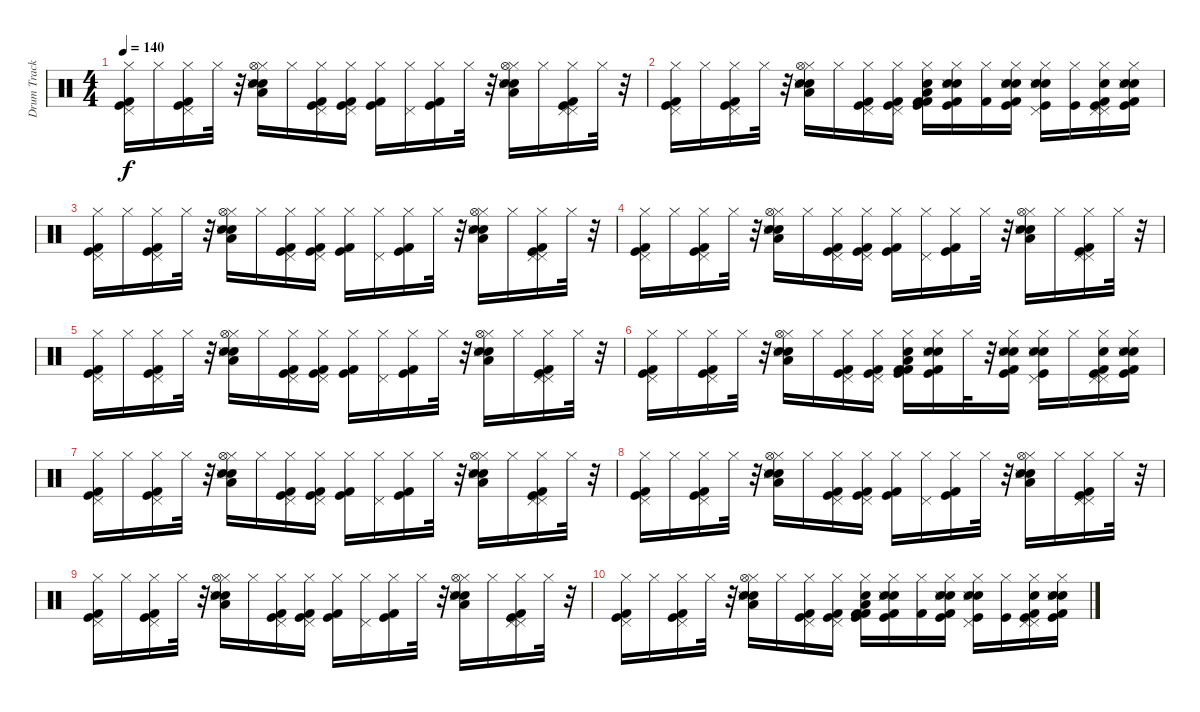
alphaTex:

\track ("Drum Track" "Drum Track") {instrument percussion}
\staff {score}
\articulation defaults
\ts (4 4)
\tempo 140
\clef neutral
\ks c
("Hi-Hat (closed)" "Pedal Hi-Hat (hit)" "Kick (hit)" "Kick (hit) 2").16{dy f} "Hi-Hat (closed)".16 ("Kick (hit) 2" "Kick (hit)" "Pedal Hi-Hat (hit)" "Hi-Hat (closed)").16 "Hi-Hat (closed)".32 r.32 ("Hi-Hat (closed)" "Hi-Hat (open)" "Low Floor Tom (hit)" "Electric Snare (hit)" "Hand Clap (hit)" "Snare (side stick) 3").16 "Hi-Hat (closed)".16 ("Kick (hit) 2" "Kick (hit)" "Pedal Hi-Hat (hit)" "Hi-Hat (closed)").16 ("Kick (hit) 2" "Kick (hit)" "Pedal Hi-Hat (hit)" "Hi-Hat (closed)").16 ("Kick (hit) 2" "Kick (hit)" "Hi-Hat (closed)").16 ("Pedal Hi-Hat (hit)" "Hi-Hat (closed)").16 ("Kick (hit) 2" "Kick (hit)" "Hi-Hat (closed)").16 "Hi-Hat (closed)".32 r.32 ("Hi-Hat (closed)" "Hi-Hat (open)" "Low Floor Tom (hit)" "Electric Snare (hit)" "Hand Clap (hit)" "Snare (side stick) 3").16 "Hi-Hat (closed)".16 ("Kick (hit) 2" "Kick (hit)" "Pedal Hi-Hat (hit)" "Pedal Hi-Hat (hit)" "Hi-Hat (closed)").16 "Hi-Hat (closed)".32 r.32 |
("Hi-Hat (closed)" "Pedal Hi-Hat (hit)" "Kick (hit)" "Kick (hit) 2").16 "Hi-Hat (closed)".16 ("Kick (hit) 2" "Kick (hit)" "Pedal Hi-Hat (hit)" "Hi-Hat (closed)").16 "Hi-Hat (closed)".32 r.32 ("Hi-Hat (closed)" "Hi-Hat (open)" "Low Floor Tom (hit)" "Electric Snare (hit)" "Hand Clap (hit)" "Snare (side stick) 3").16 "Hi-Hat (closed)".16 ("Kick (hit) 2" "Kick (hit)" "Pedal Hi-Hat (hit)" "Hi-Hat (closed)").16 ("Kick (hit) 2" "Kick (hit)" "Pedal Hi-Hat (hit)" "Hi-Hat (closed)").16 ("Kick (hit) 2" "Kick (hit)" "Hi-Hat (closed)" "Low Floor Tom (hit)" "Snare (hit) 2" "Kick (hit) 2").16 ("Hi-Hat (closed)" "Electric Snare (hit)" "Hand Clap (hit)" "Snare (side stick) 3" "Kick (hit)" "Kick (hit) 2").16 ("Hi-Hat (closed)" "Kick (hit) 2").16 ("Hi-Hat (closed)" "Kick (hit) 2" "Kick (hit)" "Electric Snare (hit)" "Hand Clap (hit)" "Snare (side stick) 3").16 ("Hi-Hat (closed)" "Pedal Hi-Hat (hit)" "Electric Snare (hit)" "Hand Clap (hit)" "Snare (side stick) 3" "Kick (hit)").16 ("Hi-Hat (closed)" "Kick (hit)").16 ("Kick (hit) 2" "Kick (hit)" "Pedal Hi-Hat (hit)" "Pedal Hi-Hat (hit)" "Hi-Hat (closed)" "Electric Snare (hit)").16 ("Hi-Hat (closed)" "Electric Snare (hit)" "Hand Clap (hit)" "Snare (side stick) 3" "Kick (hit)" "Kick (hit) 2").16 |
("Kick (hit) 2" "Kick (hit)" "Pedal Hi-Hat (hit)" "Hi-Hat (closed)").16 "Hi-Hat (closed)".16 ("Kick (hit) 2" "Kick (hit)" "Pedal Hi-Hat (hit)" "Hi-Hat (closed)").16 "Hi-Hat (closed)".32 r.32 ("Hi-Hat (closed)" "Hi-Hat (open)" "Low Floor Tom (hit)" "Electric Snare (hit)" "Hand Clap (hit)" "Snare (side stick) 3").16 "Hi-Hat (closed)".16 ("Kick (hit) 2" "Kick (hit)" "Pedal Hi-Hat (hit)" "Hi-Hat (closed)").16 ("Kick (hit) 2" "Kick (hit)" "Pedal Hi-Hat (hit)" "Hi-Hat (closed)").16 ("Kick (hit) 2" "Kick (hit)" "Hi-Hat (closed)").16 ("Pedal Hi-Hat (hit)" "Hi-Hat (closed)").16 ("Kick (hit) 2" "Kick (hit)" "Hi-Hat (closed)").16 "Hi-Hat (closed)".32 r.32 ("Hi-Hat (closed)" "Hi-Hat (open)" "Low Floor Tom (hit)" "Electric Snare (hit)" "Hand Clap (hit)" "Snare (side stick) 3").16 "Hi-Hat (closed)".16 ("Kick (hit) 2" "Kick (hit)" "Pedal Hi-Hat (hit)" "Pedal Hi-Hat (hit)" "Hi-Hat (closed)").16 "Hi-Hat (closed)".32 r.32 |
("Hi-Hat (closed)" "Pedal Hi-Hat (hit)" "Kick (hit)" "Kick (hit) 2").16 "Hi-Hat (closed)".16 ("Kick (hit) 2" "Kick (hit)" "Pedal Hi-Hat (hit)" "Hi-Hat (closed)").16 "Hi-Hat (closed)".32 r.32 ("Hi-Hat (closed)" "Hi-Hat (open)" "Low Floor Tom (hit)" "Electric Snare (hit)" "Hand Clap (hit)" "Snare (side stick) 3").16 "Hi-Hat (closed)".16 ("Kick (hit) 2" "Kick (hit)" "Pedal Hi-Hat (hit)" "Hi-Hat (closed)").16 ("Kick (hit) 2" "Kick (hit)" "Pedal Hi-Hat (hit)" "Hi-Hat (closed)").16 ("Kick (hit) 2" "Kick (hit)" "Hi-Hat (closed)").16 ("Pedal Hi-Hat (hit)" "Hi-Hat (closed)").16 ("Kick (hit) 2" "Kick (hit)" "Hi-Hat (closed)").16 "Hi-Hat (closed)".32 r.32 ("Hi-Hat (closed)" "Hi-Hat (open)" "Low Floor Tom (hit)" "Electric Snare (hit)" "Hand Clap (hit)" "Snare (side stick) 3").16 "Hi-Hat (closed)".16 ("Kick (hit) 2" "Kick (hit)" "Pedal Hi-Hat (hit)" "Pedal Hi-Hat (hit)" "Hi-Hat (closed)").16 "Hi-Hat (closed)".32 r.32 |
("Hi-Hat (closed)" "Pedal Hi-Hat (hit)" "Kick (hit)" "Kick (hit) 2").16 "Hi-Hat (closed)".16 ("Kick (hit) 2" "Kick (hit)" "Pedal Hi-Hat (hit)" "Hi-Hat (closed)").16 "Hi-Hat (closed)".32 r.32 ("Hi-Hat (closed)" "Hi-Hat (open)" "Low Floor Tom (hit)" "Electric Snare (hit)" "Hand Clap (hit)" "Snare (side stick) 3").16 "Hi-Hat (closed)".16 ("Kick (hit) 2" "Kick (hit)" "Pedal Hi-Hat (hit)" "Hi-Hat (closed)").16 ("Kick (hit) 2" "Kick (hit)" "Pedal Hi-Hat (hit)" "Hi-Hat (closed)").16 ("Kick (hit) 2" "Kick (hit)" "Hi-Hat (closed)").16 ("Pedal Hi-Hat (hit)" "Hi-Hat (closed)").16 ("Kick (hit) 2" "Kick (hit)" "Hi-Hat (closed)").16 "Hi-Hat (closed)".32 r.32 ("Hi-Hat (closed)" "Hi-Hat (open)" "Low Floor Tom (hit)" "Electric Snare (hit)" "Hand Clap (hit)" "Snare (side stick) 3").16 "Hi-Hat (closed)".16 ("Kick (hit) 2" "Kick (hit)" "Pedal Hi-Hat (hit)" "Pedal Hi-Hat (hit)" "Hi-Hat (closed)").16 "Hi-Hat (closed)".32 r.32 |
("Hi-Hat (closed)" "Pedal Hi-Hat (hit)" "Kick (hit)" "Kick (hit) 2").16 "Hi-Hat (closed)".16 ("Kick (hit) 2" "Kick (hit)" "Pedal Hi-Hat (hit)" "Hi-Hat (closed)").16 "Hi-Hat (closed)".32 r.32 ("Hi-Hat (closed)" "Hi-Hat (open)" "Low Floor Tom (hit)" "Electric Snare (hit)" "Hand Clap (hit)" "Snare (side stick) 3").16 "Hi-Hat (closed)".16 ("Kick (hit) 2" "Kick (hit)" "Pedal Hi-Hat (hit)" "Hi-Hat (closed)").16 ("Kick (hit) 2" "Kick (hit)" "Pedal Hi-Hat (hit)" "Hi-Hat (closed)").16 ("Kick (hit) 2" "Kick (hit)" "Hi-Hat (closed)" "Low Floor Tom (hit)" "Snare (hit) 2" "Kick (hit) 2").16 ("Hi-Hat (closed)" "Electric Snare (hit)" "Hand Clap (hit)" "Snare (side stick) 3" "Kick (hit)" "Kick (hit) 2").16 "Hi-Hat (closed)".32 r.32 ("Hi-Hat (closed)" "Kick (hit) 2" "Kick (hit)" "Electric Snare (hit)" "Hand Clap (hit)" "Snare (side stick) 3").16 ("Hi-Hat (closed)" "Pedal Hi-Hat (hit)" "Electric Snare (hit)" "Hand Clap (hit)" "Snare (side stick) 3" "Kick (hit)").16 "Hi-Hat (closed)".16 ("Kick (hit) 2" "Kick (hit)" "Pedal Hi-Hat (hit)" "Pedal Hi-Hat (hit)" "Hi-Hat (closed)" "Electric Snare (hit)").16 ("Hi-Hat (closed)" "Electric Snare (hit)" "Hand Clap (hit)" "Snare (side stick) 3" "Kick (hit)" "Kick (hit) 2").16 |
("Hi-Hat (closed)" "Pedal Hi-Hat (hit)" "Kick (hit)" "Kick (hit) 2").16 "Hi-Hat (closed)".16 ("Kick (hit) 2" "Kick (hit)" "Pedal Hi-Hat (hit)" "Hi-Hat (closed)").16 "Hi-Hat (closed)".32 r.32 ("Hi-Hat (closed)" "Hi-Hat (open)" "Low Floor Tom (hit)" "Electric Snare (hit)" "Hand Clap (hit)" "Snare (side stick) 3").16 "Hi-Hat (closed)".16 ("Kick (hit) 2" "Kick (hit)" "Pedal Hi-Hat (hit)" "Hi-Hat (closed)").16 ("Kick (hit) 2" "Kick (hit)" "Pedal Hi-Hat (hit)" "Hi-Hat (closed)").16 ("Kick (hit) 2" "Kick (hit)" "Hi-Hat (closed)").16 ("Pedal Hi-Hat (hit)" "Hi-Hat (closed)").16 ("Kick (hit) 2" "Kick (hit)" "Hi-Hat (closed)").16 "Hi-Hat (closed)".32 r.32 ("Hi-Hat (closed)" "Hi-Hat (open)" "Low Floor Tom (hit)" "Electric Snare (hit)" "Hand Clap (hit)" "Snare (side stick) 3").16 "Hi-Hat (closed)".16 ("Kick (hit) 2" "Kick (hit)" "Pedal Hi-Hat (hit)" "Pedal Hi-Hat (hit)" "Hi-Hat (closed)").16 "Hi-Hat (closed)".32 r.32 |
("Hi-Hat (closed)" "Pedal Hi-Hat (hit)" "Kick (hit)" "Kick (hit) 2").16 "Hi-Hat (closed)".16 ("Kick (hit) 2" "Kick (hit)" "Pedal Hi-Hat (hit)" "Hi-Hat (closed)").16 "Hi-Hat (closed)".32 r.32 ("Hi-Hat (closed)" "Hi-Hat (open)" "Low Floor Tom (hit)" "Electric Snare (hit)" "Hand Clap (hit)" "Snare (side stick) 3").16 "Hi-Hat (closed)".16 ("Kick (hit) 2" "Kick (hit)" "Pedal Hi-Hat (hit)" "Hi-Hat (closed)").16 ("Kick (hit) 2" "Kick (hit)" "Pedal Hi-Hat (hit)" "Hi-Hat (closed)").16 ("Kick (hit) 2" "Kick (hit)" "Hi-Hat (closed)").16 ("Pedal Hi-Hat (hit)" "Hi-Hat (closed)").16 ("Kick (hit) 2" "Kick (hit)" "Hi-Hat (closed)").16 "Hi-Hat (closed)".32 r.32 ("Hi-Hat (closed)" "Hi-Hat (open)" "Low Floor Tom (hit)" "Electric Snare (hit)" "Hand Clap (hit)" "Snare (side stick) 3").16 "Hi-Hat (closed)".16 ("Kick (hit) 2" "Kick (hit)" "Pedal Hi-Hat (hit)" "Pedal Hi-Hat (hit)" "Hi-Hat (closed)").16 "Hi-Hat (closed)".32 r.32 |
("Hi-Hat (closed)" "Pedal Hi-Hat (hit)" "Kick (hit)" "Kick (hit) 2").16 "Hi-Hat (closed)".16 ("Kick (hit) 2" "Kick (hit)" "Pedal Hi-Hat (hit)" "Hi-Hat (closed)").16 "Hi-Hat (closed)".32 r.32 ("Hi-Hat (closed)" "Hi-Hat (open)" "Low Floor Tom (hit)" "Electric Snare (hit)" "Hand Clap (hit)" "Snare (side stick) 3").16 "Hi-Hat (closed)".16 ("Kick (hit) 2" "Kick (hit)" "Pedal Hi-Hat (hit)" "Hi-Hat (closed)").16 ("Kick (hit) 2" "Kick (hit)" "Pedal Hi-Hat (hit)" "Hi-Hat (closed)").16 ("Kick (hit) 2" "Kick (hit)" "Hi-Hat (closed)").16 ("Pedal Hi-Hat (hit)" "Hi-Hat (closed)").16 ("Kick (hit) 2" "Kick (hit)" "Hi-Hat (closed)").16 "Hi-Hat (closed)".32 r.32 ("Hi-Hat (closed)" "Hi-Hat (open)" "Low Floor Tom (hit)" "Electric Snare (hit)" "Hand Clap (hit)" "Snare (side stick) 3").16 "Hi-Hat (closed)".16 ("Kick (hit) 2" "Kick (hit)" "Pedal Hi-Hat (hit)" "Pedal Hi-Hat (hit)" "Hi-Hat (closed)").16 "Hi-Hat (closed)".32 r.32 |
("Hi-Hat (closed)" "Pedal Hi-Hat (hit)" "Kick (hit)" "Kick (hit) 2").16 "Hi-Hat (closed)".16 ("Kick (hit) 2" "Kick (hit)" "Pedal Hi-Hat (hit)" "Hi-Hat (closed)").16 "Hi-Hat (closed)".32 r.32 ("Hi-Hat (closed)" "Hi-Hat (open)" "Low Floor Tom (hit)" "Electric Snare (hit)" "Hand Clap (hit)" "Snare (side stick) 3").16 "Hi-Hat (closed)".16 ("Kick (hit) 2" "Kick (hit)" "Pedal Hi-Hat (hit)" "Hi-Hat (closed)").16 ("Kick (hit) 2" "Kick (hit)" "Pedal Hi-Hat (hit)" "Hi-Hat (closed)").16 ("Kick (hit) 2" "Kick (hit)" "Hi-Hat (closed)" "Low Floor Tom (hit)" "Snare (hit) 2" "Kick (hit) 2").16 ("Hi-Hat (closed)" "Electric Snare (hit)" "Hand Clap (hit)" "Snare (side stick) 3" "Kick (hit)" "Kick (hit) 2").16 ("Hi-Hat (closed)" "Kick (hit) 2").16 ("Hi-Hat (closed)" "Kick (hit) 2" "Kick (hit)" "Electric Snare (hit)" "Hand Clap (hit)" "Snare (side stick) 3").16 ("Hi-Hat (closed)" "Pedal Hi-Hat (hit)" "Electric Snare (hit)" "Hand Clap (hit)" "Snare (side stick) 3" "Kick (hit)").16 ("Hi-Hat (closed)" "Kick (hit)").16 ("Kick (hit) 2" "Kick (hit)" "Pedal Hi-Hat (hit)" "Pedal Hi-Hat (hit)" "Hi-Hat (closed)" "Electric Snare (hit)").16 ("Hi-Hat (closed)" "Electric Snare (hit)" "Hand Clap (hit)" "Snare (side stick) 3" "Kick (hit)" "Kick (hit) 2").16
